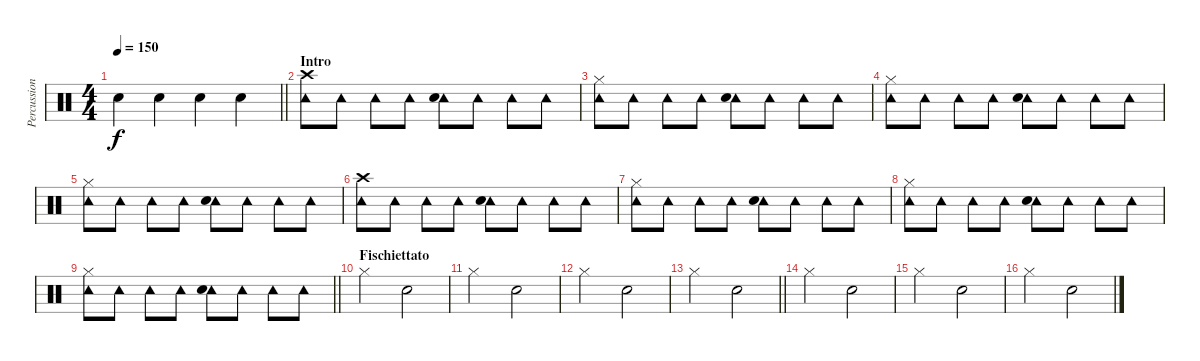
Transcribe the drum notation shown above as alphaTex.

\track ("Percussioni" "Percussion") {instrument percussion}
\staff {score}
\articulation defaults
\ts (4 4)
\tempo 150
\clef neutral
\barLineRight lightlight
\ks c "Snare (hit) 2".4{dy f} "Snare (hit) 2".4 "Snare (hit) 2".4 "Snare (hit) 2".4
|
\section ("" "Intro")
("Tambourine (hit)" "Crash high (hit)").8 "Tambourine (hit)".8 "Tambourine (hit)".8 "Tambourine (hit)".8 ("Tambourine (hit)" "Snare (hit) 2").8 "Tambourine (hit)".8 "Tambourine (hit)".8 "Tambourine (hit)".8 |
("Tambourine (hit)" "Hi-Hat (closed)").8 "Tambourine (hit)".8 "Tambourine (hit)".8 "Tambourine (hit)".8 ("Tambourine (hit)" "Snare (hit) 2").8 "Tambourine (hit)".8 "Tambourine (hit)".8 "Tambourine (hit)".8 |
("Tambourine (hit)" "Hi-Hat (closed)").8 "Tambourine (hit)".8 "Tambourine (hit)".8 "Tambourine (hit)".8 ("Tambourine (hit)" "Snare (hit) 2").8 "Tambourine (hit)".8 "Tambourine (hit)".8 "Tambourine (hit)".8 |
("Tambourine (hit)" "Hi-Hat (closed)").8 "Tambourine (hit)".8 "Tambourine (hit)".8 "Tambourine (hit)".8 ("Tambourine (hit)" "Snare (hit) 2").8 "Tambourine (hit)".8 "Tambourine (hit)".8 "Tambourine (hit)".8 |
("Tambourine (hit)" "Crash high (hit)").8 "Tambourine (hit)".8 "Tambourine (hit)".8 "Tambourine (hit)".8 ("Tambourine (hit)" "Snare (hit) 2").8 "Tambourine (hit)".8 "Tambourine (hit)".8 "Tambourine (hit)".8 |
("Tambourine (hit)" "Hi-Hat (closed)").8 "Tambourine (hit)".8 "Tambourine (hit)".8 "Tambourine (hit)".8 ("Tambourine (hit)" "Snare (hit) 2").8 "Tambourine (hit)".8 "Tambourine (hit)".8 "Tambourine (hit)".8 |
("Tambourine (hit)" "Hi-Hat (closed)").8 "Tambourine (hit)".8 "Tambourine (hit)".8 "Tambourine (hit)".8 ("Tambourine (hit)" "Snare (hit) 2").8 "Tambourine (hit)".8 "Tambourine (hit)".8 "Tambourine (hit)".8 |
\barLineRight lightlight
("Tambourine (hit)" "Hi-Hat (closed)").8 "Tambourine (hit)".8 "Tambourine (hit)".8 "Tambourine (hit)".8 ("Tambourine (hit)" "Snare (hit) 2").8 "Tambourine (hit)".8 "Tambourine (hit)".8 "Tambourine (hit)".8 |
\section ("" "Fischiettato")
"Hi-Hat (closed)".2 "Snare (hit) 2".2 |
"Hi-Hat (closed)".2 "Snare (hit) 2".2 |
"Hi-Hat (closed)".2 "Snare (hit) 2".2 |
\barLineRight lightlight "Hi-Hat (closed)".2 "Snare (hit) 2".2
|
"Hi-Hat (closed)".2 "Snare (hit) 2".2 |
"Hi-Hat (closed)".2 "Snare (hit) 2".2 |
"Hi-Hat (closed)".2 "Snare (hit) 2".2
